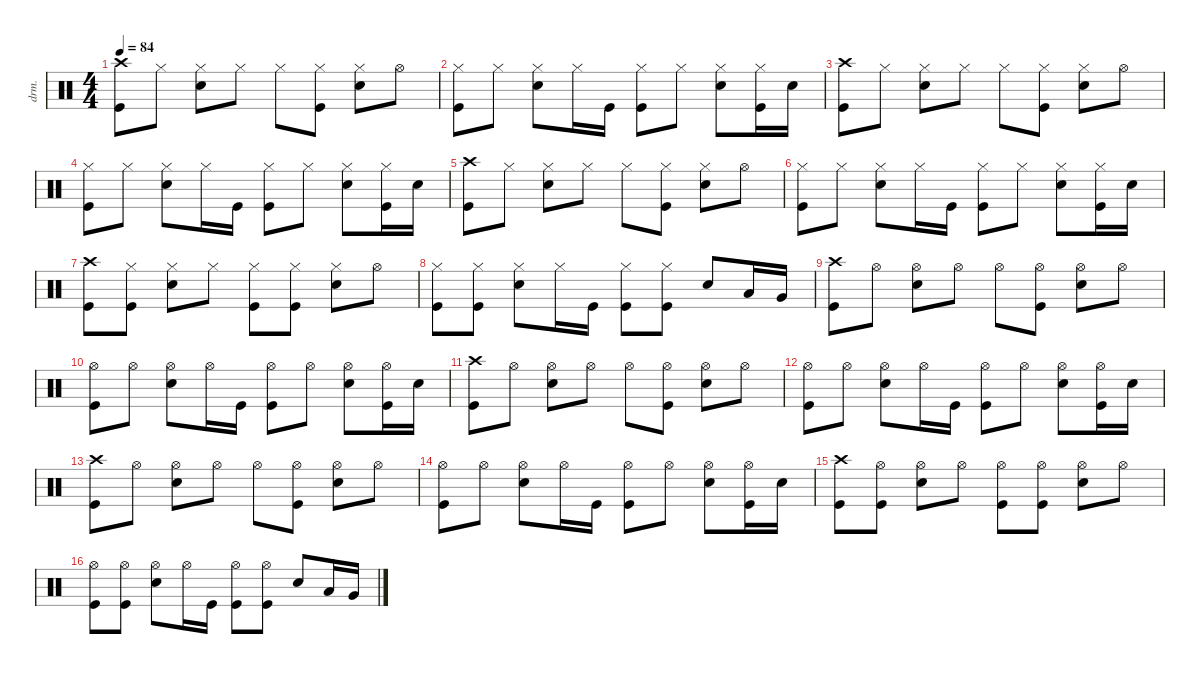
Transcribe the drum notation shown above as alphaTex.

\defaultSystemsLayout 4
\hideDynamics
\bracketExtendMode nobrackets
\otherSystemsTrackNameOrientation horizontal
\track ("鼓" "drm.") {instrument percussion}
\staff {score}
\articulation defaults
\ts (4 4)
\tempo 84
\clef neutral
\ks c
("Crash high (hit)" "Kick (hit)").8{dy f} "Hi-Hat (closed)".8 ("Hi-Hat (closed)" "Snare (hit) 2").8 "Hi-Hat (closed)".8 "Hi-Hat (closed)".8 ("Hi-Hat (closed)" "Kick (hit)").8 ("Hi-Hat (closed)" "Snare (hit) 2").8 "Hi-Hat (open)".8 |
("Hi-Hat (closed)" "Kick (hit)").8 "Hi-Hat (closed)".8 ("Hi-Hat (closed)" "Snare (hit) 2").8 "Hi-Hat (closed)".16 "Kick (hit)".16 ("Hi-Hat (closed)" "Kick (hit)").8 "Hi-Hat (closed)".8 ("Hi-Hat (closed)" "Snare (hit) 2").8 ("Hi-Hat (closed)" "Kick (hit)").16 "Snare (hit) 2".16 |
("Crash high (hit)" "Kick (hit)").8 "Hi-Hat (closed)".8 ("Hi-Hat (closed)" "Snare (hit) 2").8 "Hi-Hat (closed)".8 "Hi-Hat (closed)".8 ("Hi-Hat (closed)" "Kick (hit)").8 ("Hi-Hat (closed)" "Snare (hit) 2").8 "Hi-Hat (open)".8 |
("Hi-Hat (closed)" "Kick (hit)").8 "Hi-Hat (closed)".8 ("Hi-Hat (closed)" "Snare (hit) 2").8 "Hi-Hat (closed)".16 "Kick (hit)".16 ("Hi-Hat (closed)" "Kick (hit)").8 "Hi-Hat (closed)".8 ("Hi-Hat (closed)" "Snare (hit) 2").8 ("Hi-Hat (closed)" "Kick (hit)").16 "Snare (hit) 2".16 |
("Crash high (hit)" "Kick (hit)").8 "Hi-Hat (closed)".8 ("Hi-Hat (closed)" "Snare (hit) 2").8 "Hi-Hat (closed)".8 "Hi-Hat (closed)".8 ("Hi-Hat (closed)" "Kick (hit)").8 ("Hi-Hat (closed)" "Snare (hit) 2").8 "Hi-Hat (open)".8 |
("Hi-Hat (closed)" "Kick (hit)").8 "Hi-Hat (closed)".8 ("Hi-Hat (closed)" "Snare (hit) 2").8 "Hi-Hat (closed)".16 "Kick (hit)".16 ("Hi-Hat (closed)" "Kick (hit)").8 "Hi-Hat (closed)".8 ("Hi-Hat (closed)" "Snare (hit) 2").8 ("Hi-Hat (closed)" "Kick (hit)").16 "Snare (hit) 2".16 |
("Crash high (hit)" "Kick (hit)").8 ("Hi-Hat (closed)" "Kick (hit)").8 ("Hi-Hat (closed)" "Snare (hit) 2").8 "Hi-Hat (closed)".8 ("Hi-Hat (closed)" "Kick (hit)").8 ("Hi-Hat (closed)" "Kick (hit)").8 ("Hi-Hat (closed)" "Snare (hit) 2").8 "Hi-Hat (open)".8 |
("Hi-Hat (closed)" "Kick (hit)").8 ("Hi-Hat (closed)" "Kick (hit)").8 ("Hi-Hat (closed)" "Snare (hit) 2").8 "Hi-Hat (closed)".16 "Kick (hit)".16 ("Hi-Hat (closed)" "Kick (hit)").8 ("Hi-Hat (closed)" "Kick (hit)").8 "Snare (hit) 2".8 "Low Tom (hit)".16 "Very Low Tom (hit)".16 |
("Crash high (hit)" "Kick (hit)").8 "Hi-Hat (open)".8 ("Hi-Hat (open)" "Snare (hit) 2").8 "Hi-Hat (open)".8 "Hi-Hat (open)".8 ("Hi-Hat (open)" "Kick (hit)").8 ("Hi-Hat (open)" "Snare (hit) 2").8 "Hi-Hat (open)".8 |
("Hi-Hat (open)" "Kick (hit)").8 "Hi-Hat (open)".8 ("Hi-Hat (open)" "Snare (hit) 2").8 "Hi-Hat (open)".16 "Kick (hit)".16 ("Hi-Hat (open)" "Kick (hit)").8 "Hi-Hat (open)".8 ("Hi-Hat (open)" "Snare (hit) 2").8 ("Hi-Hat (open)" "Kick (hit)").16 "Snare (hit) 2".16 |
("Crash high (hit)" "Kick (hit)").8 "Hi-Hat (open)".8 ("Hi-Hat (open)" "Snare (hit) 2").8 "Hi-Hat (open)".8 "Hi-Hat (open)".8 ("Hi-Hat (open)" "Kick (hit)").8 ("Hi-Hat (open)" "Snare (hit) 2").8 "Hi-Hat (open)".8 |
("Hi-Hat (open)" "Kick (hit)").8 "Hi-Hat (open)".8 ("Hi-Hat (open)" "Snare (hit) 2").8 "Hi-Hat (open)".16 "Kick (hit)".16 ("Hi-Hat (open)" "Kick (hit)").8 "Hi-Hat (open)".8 ("Hi-Hat (open)" "Snare (hit) 2").8 ("Hi-Hat (open)" "Kick (hit)").16 "Snare (hit) 2".16 |
("Crash high (hit)" "Kick (hit)").8 "Hi-Hat (open)".8 ("Hi-Hat (open)" "Snare (hit) 2").8 "Hi-Hat (open)".8 "Hi-Hat (open)".8 ("Hi-Hat (open)" "Kick (hit)").8 ("Hi-Hat (open)" "Snare (hit) 2").8 "Hi-Hat (open)".8 |
("Hi-Hat (open)" "Kick (hit)").8 "Hi-Hat (open)".8 ("Hi-Hat (open)" "Snare (hit) 2").8 "Hi-Hat (open)".16 "Kick (hit)".16 ("Hi-Hat (open)" "Kick (hit)").8 "Hi-Hat (open)".8 ("Hi-Hat (open)" "Snare (hit) 2").8 ("Hi-Hat (open)" "Kick (hit)").16 "Snare (hit) 2".16 |
("Crash high (hit)" "Kick (hit)").8 ("Hi-Hat (open)" "Kick (hit)").8 ("Hi-Hat (open)" "Snare (hit) 2").8 "Hi-Hat (open)".8 ("Hi-Hat (open)" "Kick (hit)").8 ("Hi-Hat (open)" "Kick (hit)").8 ("Hi-Hat (open)" "Snare (hit) 2").8 "Hi-Hat (open)".8 |
("Hi-Hat (open)" "Kick (hit)").8 ("Hi-Hat (open)" "Kick (hit)").8 ("Hi-Hat (open)" "Snare (hit) 2").8 "Hi-Hat (open)".16 "Kick (hit)".16 ("Hi-Hat (open)" "Kick (hit)").8 ("Hi-Hat (open)" "Kick (hit)").8 "Snare (hit) 2".8 "Low Tom (hit)".16 "Very Low Tom (hit)".16
